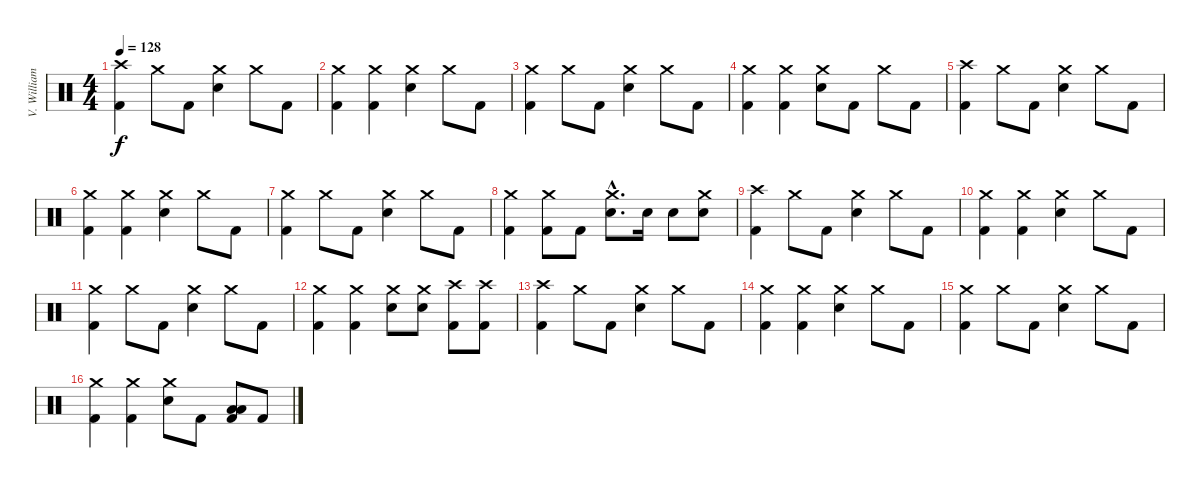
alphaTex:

\track ("V. Williams" "V. William") {instrument percussion}
\staff {score}
\articulation defaults
\ts (4 4)
\section ("" "")
\tempo 128
\clef neutral
\ks c
("Crash high (hit)" "Kick (hit) 2").4{dy f} "Crash medium (hit)".8 "Kick (hit) 2".8 ("Crash medium (hit)" "Electric Snare (hit)").4 "Crash medium (hit)".8 "Kick (hit) 2".8 |
("Crash medium (hit)" "Kick (hit) 2").4 ("Crash medium (hit)" "Kick (hit) 2").4 ("Crash medium (hit)" "Electric Snare (hit)").4 "Crash medium (hit)".8 "Kick (hit) 2".8 |
("Crash medium (hit)" "Kick (hit) 2").4 "Crash medium (hit)".8 "Kick (hit) 2".8 ("Crash medium (hit)" "Electric Snare (hit)").4 "Crash medium (hit)".8 "Kick (hit) 2".8 |
("Crash medium (hit)" "Kick (hit) 2").4 ("Crash medium (hit)" "Kick (hit) 2").4 ("Crash medium (hit)" "Electric Snare (hit)").8 "Kick (hit) 2".8 "Crash medium (hit)".8 "Kick (hit) 2".8 |
("Crash high (hit)" "Kick (hit) 2").4 "Crash medium (hit)".8 "Kick (hit) 2".8 ("Crash medium (hit)" "Electric Snare (hit)").4 "Crash medium (hit)".8 "Kick (hit) 2".8 |
("Crash medium (hit)" "Kick (hit) 2").4 ("Crash medium (hit)" "Kick (hit) 2").4 ("Crash medium (hit)" "Electric Snare (hit)").4 "Crash medium (hit)".8 "Kick (hit) 2".8 |
("Crash medium (hit)" "Kick (hit) 2").4 "Crash medium (hit)".8 "Kick (hit) 2".8 ("Crash medium (hit)" "Electric Snare (hit)").4 "Crash medium (hit)".8 "Kick (hit) 2".8 |
("Crash medium (hit)" "Kick (hit) 2").4 ("Crash medium (hit)" "Kick (hit) 2").8 "Kick (hit) 2".8 ("Crash medium (hit)"{hac} "Electric Snare (hit)"{hac}).8{d} "Electric Snare (hit)".16 "Electric Snare (hit)".8 ("Crash medium (hit)" "Electric Snare (hit)").8 |
("Crash high (hit)" "Kick (hit) 2").4 "Crash medium (hit)".8 "Kick (hit) 2".8 ("Crash medium (hit)" "Electric Snare (hit)").4 "Crash medium (hit)".8 "Kick (hit) 2".8 |
("Crash medium (hit)" "Kick (hit) 2").4 ("Crash medium (hit)" "Kick (hit) 2").4 ("Crash medium (hit)" "Electric Snare (hit)").4 "Crash medium (hit)".8 "Kick (hit) 2".8 |
("Crash medium (hit)" "Kick (hit) 2").4 "Crash medium (hit)".8 "Kick (hit) 2".8 ("Crash medium (hit)" "Electric Snare (hit)").4 "Crash medium (hit)".8 "Kick (hit) 2".8 |
("Crash medium (hit)" "Kick (hit) 2").4 ("Crash medium (hit)" "Kick (hit) 2").4 ("Crash medium (hit)" "Electric Snare (hit)").8 ("Crash medium (hit)" "Electric Snare (hit)").8 ("Crash high (hit)" "Kick (hit) 2").8 ("Crash high (hit)" "Kick (hit) 2").8 |
("Crash high (hit)" "Kick (hit) 2").4 "Crash medium (hit)".8 "Kick (hit) 2".8 ("Crash medium (hit)" "Electric Snare (hit)").4 "Crash medium (hit)".8 "Kick (hit) 2".8 |
("Crash medium (hit)" "Kick (hit) 2").4 ("Crash medium (hit)" "Kick (hit) 2").4 ("Crash medium (hit)" "Electric Snare (hit)").4 "Crash medium (hit)".8 "Kick (hit) 2".8 |
("Crash medium (hit)" "Kick (hit) 2").4 "Crash medium (hit)".8 "Kick (hit) 2".8 ("Crash medium (hit)" "Electric Snare (hit)").4 "Crash medium (hit)".8 "Kick (hit) 2".8 |
("Crash medium (hit)" "Kick (hit) 2").4 ("Crash medium (hit)" "Kick (hit) 2").4 ("Crash medium (hit)" "Electric Snare (hit)").8 "Kick (hit) 2".8 ("Low Tom (hit)" "Low Floor Tom (hit)" "Kick (hit) 2").8 "Kick (hit) 2".8
